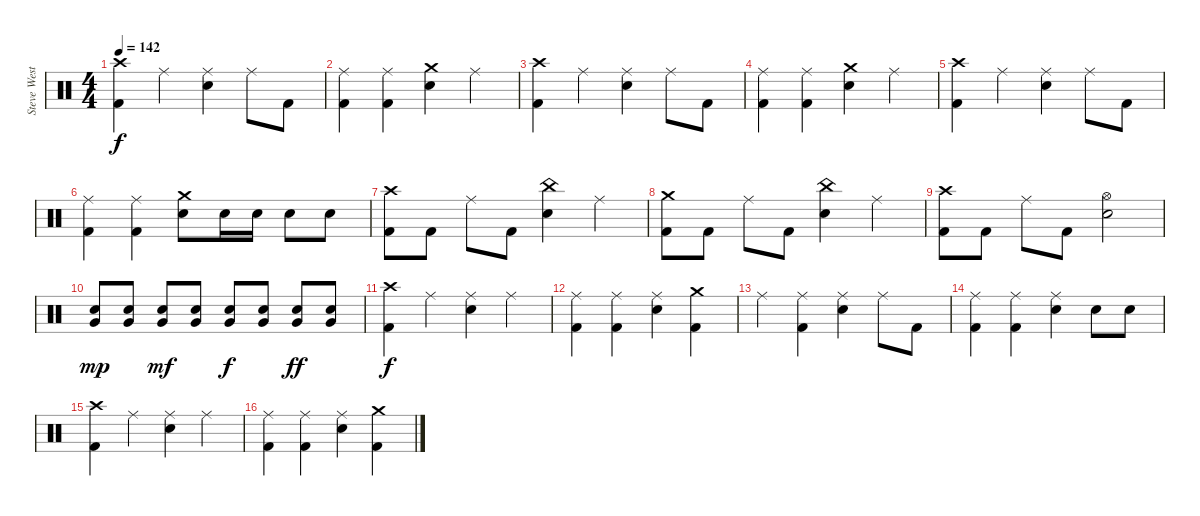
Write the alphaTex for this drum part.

\track ("Steve West" "Steve West") {instrument percussion}
\staff {score}
\articulation defaults
\ts (4 4)
\tempo 142
\clef neutral
\ks c
("Kick (hit) 2" "Crash high (hit)").4{dy f} "Ride (middle)".4 ("Electric Snare (hit)" "Ride (middle)").4 "Ride (middle)".8 "Kick (hit) 2".8 |
("Kick (hit) 2" "Ride (middle)").4 ("Kick (hit) 2" "Ride (middle)").4 ("Electric Snare (hit)" "Crash medium (hit)").4 "Ride (middle)".4 |
("Kick (hit) 2" "Crash high (hit)").4 "Ride (middle)".4 ("Electric Snare (hit)" "Ride (middle)").4 "Ride (middle)".8 "Kick (hit) 2".8 |
("Kick (hit) 2" "Ride (middle)").4 ("Kick (hit) 2" "Ride (middle)").4 ("Electric Snare (hit)" "Crash medium (hit)").4 "Ride (middle)".4 |
("Kick (hit) 2" "Crash high (hit)").4 "Ride (middle)".4 ("Electric Snare (hit)" "Ride (middle)").4 "Ride (middle)".8 "Kick (hit) 2".8 |
("Kick (hit) 2" "Ride (middle)").4 ("Kick (hit) 2" "Ride (middle)").4 ("Electric Snare (hit)" "Crash medium (hit)").8 "Electric Snare (hit)".16 "Electric Snare (hit)".16 "Electric Snare (hit)".8 "Electric Snare (hit)".8 |
("Kick (hit) 2" "Crash high (hit)").8 "Kick (hit) 2".8 "Ride (middle)".8 "Kick (hit) 2".8 ("Electric Snare (hit)" "China (hit)").4 "Ride (middle)".4 |
("Kick (hit) 2" "Crash medium (hit)").8 "Kick (hit) 2".8 "Ride (middle)".8 "Kick (hit) 2".8 ("Electric Snare (hit)" "China (hit)").4 "Ride (middle)".4 |
("Kick (hit) 2" "Crash high (hit)").8 "Kick (hit) 2".8 "Ride (middle)".8 "Kick (hit) 2".8 ("Electric Snare (hit)" "Hi-Hat (open)").2 |
("Very Low Tom (hit)" "Electric Snare (hit)").8{dy mp} ("Very Low Tom (hit)" "Electric Snare (hit)").8 ("Very Low Tom (hit)" "Electric Snare (hit)").8{dy mf} ("Very Low Tom (hit)" "Electric Snare (hit)").8 ("Very Low Tom (hit)" "Electric Snare (hit)").8{dy f} ("Very Low Tom (hit)" "Electric Snare (hit)").8 ("Very Low Tom (hit)" "Electric Snare (hit)").8{dy ff} ("Very Low Tom (hit)" "Electric Snare (hit)").8 |
("Kick (hit) 2" "Crash high (hit)").4{dy f} "Ride (middle)".4 ("Electric Snare (hit)" "Ride (middle)").4 "Ride (middle)".4 |
("Kick (hit) 2" "Ride (middle)").4 ("Kick (hit) 2" "Ride (middle)").4 ("Electric Snare (hit)" "Ride (middle)").4 ("Kick (hit) 2" "Crash medium (hit)").4 |
"Ride (middle)".4 ("Kick (hit) 2" "Ride (middle)").4 ("Electric Snare (hit)" "Ride (middle)").4 "Ride (middle)".8 "Kick (hit) 2".8 |
("Kick (hit) 2" "Ride (middle)").4 ("Kick (hit) 2" "Ride (middle)").4 ("Electric Snare (hit)" "Ride (middle)").4 "Electric Snare (hit)".8 "Electric Snare (hit)".8 |
("Kick (hit) 2" "Crash high (hit)").4 "Ride (middle)".4 ("Electric Snare (hit)" "Ride (middle)").4 "Ride (middle)".4 |
("Kick (hit) 2" "Ride (middle)").4 ("Kick (hit) 2" "Ride (middle)").4 ("Electric Snare (hit)" "Ride (middle)").4 ("Kick (hit) 2" "Crash medium (hit)").4
